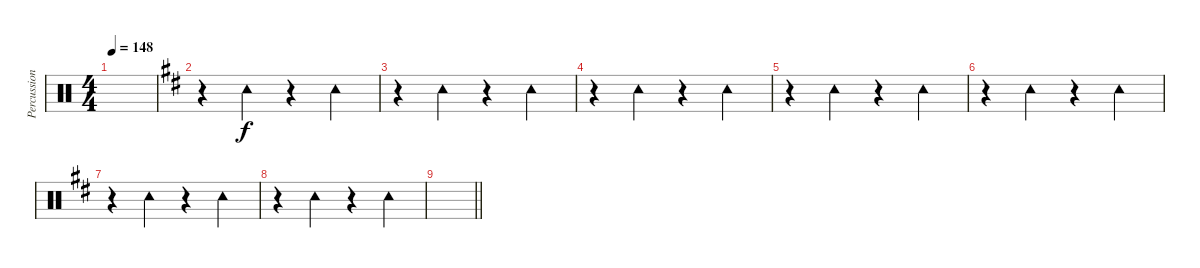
\track ("Percussioni" "Percussion") {instrument percussion}
\staff {score}
\articulation defaults
\ts (4 4)
\tempo 148
\clef neutral
\ks c
|
\ks d
r.4 "Tambourine (hit)".4 r.4 "Tambourine (hit)".4 |
r.4 "Tambourine (hit)".4 r.4 "Tambourine (hit)".4 |
r.4 "Tambourine (hit)".4 r.4 "Tambourine (hit)".4 |
r.4 "Tambourine (hit)".4 r.4 "Tambourine (hit)".4 |
r.4 "Tambourine (hit)".4 r.4 "Tambourine (hit)".4 |
r.4 "Tambourine (hit)".4 r.4 "Tambourine (hit)".4 |
r.4 "Tambourine (hit)".4 r.4 "Tambourine (hit)".4 |
\barLineRight lightlight
